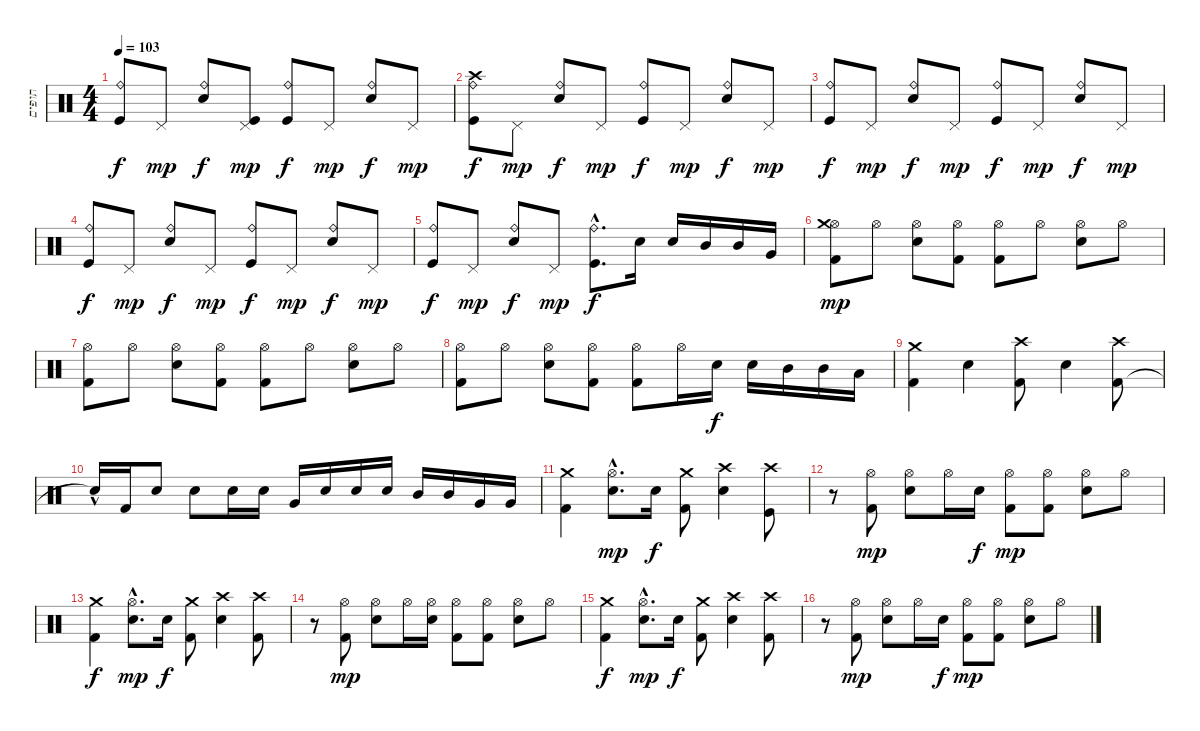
\track ("תופים" "תופים") {instrument percussion}
\staff {score}
\articulation defaults
\ts (4 4)
\tempo 103
\clef neutral
\ks c
("Kick (hit)" "Ride (bell)").8{dy f} "Pedal Hi-Hat (hit)".8{dy mp} ("Electric Snare (hit)" "Ride (bell)").8{dy f} ("Kick (hit)" "Pedal Hi-Hat (hit)").8{dy mp} ("Kick (hit)" "Ride (bell)").8{dy f} "Pedal Hi-Hat (hit)".8{dy mp} ("Electric Snare (hit)" "Ride (bell)").8{dy f} "Pedal Hi-Hat (hit)".8{dy mp} |
("Crash high (hit)" "Kick (hit)" "Ride (bell)").8{dy f} "Pedal Hi-Hat (hit)".8{dy mp} ("Electric Snare (hit)" "Ride (bell)").8{dy f} "Pedal Hi-Hat (hit)".8{dy mp} ("Kick (hit)" "Ride (bell)").8{dy f} "Pedal Hi-Hat (hit)".8{dy mp} ("Electric Snare (hit)" "Ride (bell)").8{dy f} "Pedal Hi-Hat (hit)".8{dy mp} |
("Kick (hit)" "Ride (bell)").8{dy f} "Pedal Hi-Hat (hit)".8{dy mp} ("Electric Snare (hit)" "Ride (bell)").8{dy f} "Pedal Hi-Hat (hit)".8{dy mp} ("Kick (hit)" "Ride (bell)").8{dy f} "Pedal Hi-Hat (hit)".8{dy mp} ("Electric Snare (hit)" "Ride (bell)").8{dy f} "Pedal Hi-Hat (hit)".8{dy mp} |
("Kick (hit)" "Ride (bell)").8{dy f} "Pedal Hi-Hat (hit)".8{dy mp} ("Electric Snare (hit)" "Ride (bell)").8{dy f} "Pedal Hi-Hat (hit)".8{dy mp} ("Kick (hit)" "Ride (bell)").8{dy f} "Pedal Hi-Hat (hit)".8{dy mp} ("Electric Snare (hit)" "Ride (bell)").8{dy f} "Pedal Hi-Hat (hit)".8{dy mp} |
("Kick (hit)" "Ride (bell)").8{dy f} "Pedal Hi-Hat (hit)".8{dy mp} ("Electric Snare (hit)" "Ride (bell)").8{dy f} "Pedal Hi-Hat (hit)".8{dy mp} ("Kick (hit)"{hac} "Ride (bell)"{hac}).8{d dy f} "Electric Snare (hit)".16 "Electric Snare (hit)".16 "Mid Tom (hit)".16 "Mid Tom (hit)".16 "Very Low Tom (hit)".16 |
("Hi-Hat (open)" "Kick (hit) 2" "Crash medium (hit)").8{dy mp} "Hi-Hat (open)".8 ("Hi-Hat (open)" "Electric Snare (hit)").8 ("Hi-Hat (open)" "Kick (hit) 2").8 ("Hi-Hat (open)" "Kick (hit) 2").8 "Hi-Hat (open)".8 ("Hi-Hat (open)" "Electric Snare (hit)").8 "Hi-Hat (open)".8 |
("Hi-Hat (open)" "Kick (hit) 2").8 "Hi-Hat (open)".8 ("Hi-Hat (open)" "Electric Snare (hit)").8 ("Hi-Hat (open)" "Kick (hit) 2").8 ("Hi-Hat (open)" "Kick (hit) 2").8 "Hi-Hat (open)".8 ("Hi-Hat (open)" "Electric Snare (hit)").8 "Hi-Hat (open)".8 |
("Hi-Hat (open)" "Kick (hit) 2").8 "Hi-Hat (open)".8 ("Hi-Hat (open)" "Electric Snare (hit)").8 ("Hi-Hat (open)" "Kick (hit) 2").8 ("Hi-Hat (open)" "Kick (hit) 2").8 "Hi-Hat (open)".16 "Electric Snare (hit)".16{dy f} "Electric Snare (hit)".16 "Mid Tom (hit)".16 "Mid Tom (hit)".16 "Low Floor Tom (hit)".16 |
("Kick (hit) 2" "Crash medium (hit)").4 "Electric Snare (hit)".4 ("Kick (hit) 2" "Crash high (hit)").8 "Electric Snare (hit)".4 ("Kick (hit) 2" "Crash high (hit)").8 |
"Snare (hit)"{hac t}.16 "Kick (hit) 2".16 "Electric Snare (hit)".8 "Electric Snare (hit)".8 "Electric Snare (hit)".16 "Electric Snare (hit)".16 "Very Low Tom (hit)".16 "Electric Snare (hit)".16 "Electric Snare (hit)".16 "Electric Snare (hit)".16 "Mid Tom (hit)".16 "Mid Tom (hit)".16 "Very Low Tom (hit)".16 "Very Low Tom (hit)".16 |
("Kick (hit) 2" "Crash medium (hit)").4 ("Hi-Hat (open)"{hac} "Electric Snare (hit)"{hac}).8{d dy mp} "Electric Snare (hit)".16{dy f} ("Kick (hit) 2" "Crash medium (hit)").8 ("Electric Snare (hit)" "Crash high (hit)").4 ("Kick (hit)" "Crash high (hit)").8 |
r.8 ("Hi-Hat (open)" "Kick (hit) 2").8{dy mp} ("Hi-Hat (open)" "Electric Snare (hit)").8 "Hi-Hat (open)".16 "Electric Snare (hit)".16{dy f} ("Hi-Hat (open)" "Kick (hit) 2").8{dy mp} ("Hi-Hat (open)" "Kick (hit) 2").8 ("Hi-Hat (open)" "Electric Snare (hit)").8 "Hi-Hat (open)".8 |
("Kick (hit) 2" "Crash medium (hit)").4{dy f} ("Hi-Hat (open)"{hac} "Electric Snare (hit)"{hac}).8{d dy mp} "Electric Snare (hit)".16{dy f} ("Kick (hit) 2" "Crash medium (hit)").8 ("Electric Snare (hit)" "Crash high (hit)").4 ("Kick (hit) 2" "Crash high (hit)").8 |
r.8 ("Hi-Hat (open)" "Kick (hit) 2").8{dy mp} ("Hi-Hat (open)" "Electric Snare (hit)").8 "Hi-Hat (open)".16 ("Hi-Hat (open)" "Electric Snare (hit)").16 ("Hi-Hat (open)" "Kick (hit) 2").8 ("Hi-Hat (open)" "Kick (hit) 2").8 ("Hi-Hat (open)" "Electric Snare (hit)").8 "Hi-Hat (open)".8 |
("Kick (hit) 2" "Crash medium (hit)").4{dy f} ("Hi-Hat (open)"{hac} "Electric Snare (hit)"{hac}).8{d dy mp} "Electric Snare (hit)".16{dy f} ("Kick (hit) 2" "Crash medium (hit)").8 ("Electric Snare (hit)" "Crash high (hit)").4 ("Kick (hit) 2" "Crash high (hit)").8 |
r.8 ("Hi-Hat (open)" "Kick (hit) 2").8{dy mp} ("Hi-Hat (open)" "Electric Snare (hit)").8 "Hi-Hat (open)".16 "Electric Snare (hit)".16{dy f} ("Hi-Hat (open)" "Kick (hit) 2").8{dy mp} ("Hi-Hat (open)" "Kick (hit) 2").8 ("Hi-Hat (open)" "Electric Snare (hit)").8 "Hi-Hat (open)".8
